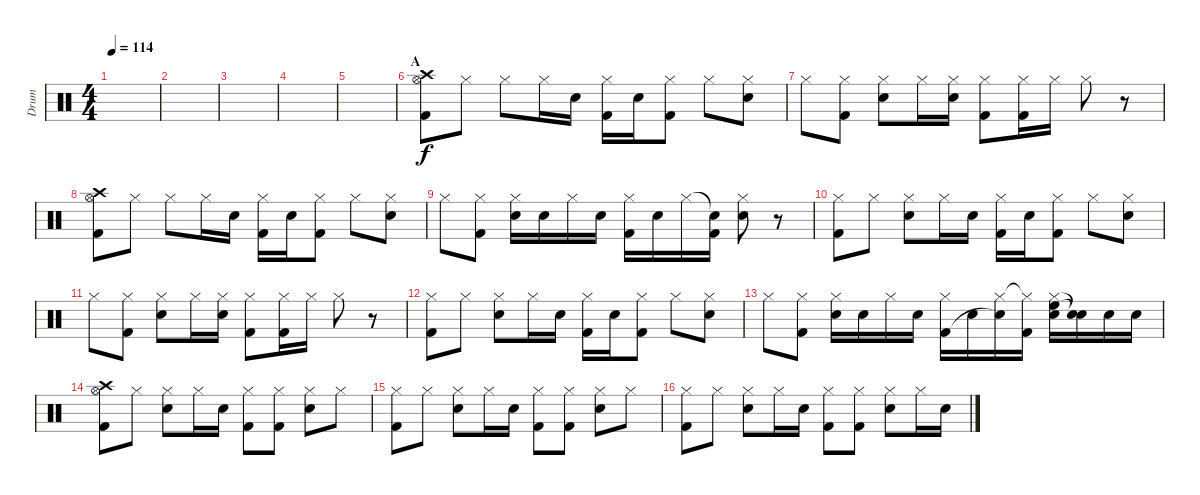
\track ("Drum" "Drum") {instrument percussion}
\staff {score}
\articulation defaults
\ts (4 4)
\tempo 114
\clef neutral
\ks c
|
|
|
|
|
\section ("" "A")
("Crash high (hit)" "Hi-Hat (open)" "Kick (hit) 2").8 "Hi-Hat (closed)".8 "Hi-Hat (closed)".8 "Hi-Hat (closed)".16 "Snare (hit) 2".16 ("Hi-Hat (closed)" "Kick (hit) 2").16 "Snare (hit) 2".16 ("Hi-Hat (closed)" "Kick (hit) 2").8 "Hi-Hat (closed)".8 ("Hi-Hat (closed)" "Snare (hit) 2").8 |
"Hi-Hat (closed)".8 ("Hi-Hat (closed)" "Kick (hit) 2").8 ("Hi-Hat (closed)" "Snare (hit) 2").8 "Hi-Hat (closed)".16 ("Hi-Hat (closed)" "Snare (hit) 2").16 ("Hi-Hat (closed)" "Kick (hit) 2").8 ("Hi-Hat (closed)" "Kick (hit) 2").16 "Hi-Hat (closed)".16 "Hi-Hat (closed)".8 r.8 |
("Crash high (hit)" "Hi-Hat (open)" "Kick (hit) 2").8 "Hi-Hat (closed)".8 "Hi-Hat (closed)".8 "Hi-Hat (closed)".16 "Snare (hit) 2".16 ("Hi-Hat (closed)" "Kick (hit) 2").16 "Snare (hit) 2".16 ("Hi-Hat (closed)" "Kick (hit) 2").8 "Hi-Hat (closed)".8 ("Hi-Hat (closed)" "Snare (hit) 2").8 |
"Hi-Hat (closed)".8 ("Hi-Hat (closed)" "Kick (hit) 2").8 ("Hi-Hat (closed)" "Snare (hit) 2").16 "Snare (hit) 2".16 "Hi-Hat (closed)".16 "Snare (hit) 2".16 ("Hi-Hat (closed)" "Kick (hit) 2").16 "Snare (hit) 2".16 "Hi-Hat (closed)".16 ("Snare (hit)"{t} "Kick (hit) 2").16 ("Hi-Hat (closed)" "Snare (hit) 2").8 r.8 |
("Hi-Hat (closed)" "Kick (hit) 2").8 "Hi-Hat (closed)".8 ("Hi-Hat (closed)" "Snare (hit) 2").8 "Hi-Hat (closed)".16 "Snare (hit) 2".16 ("Hi-Hat (closed)" "Kick (hit) 2").16 "Snare (hit) 2".16 ("Hi-Hat (closed)" "Kick (hit) 2").8 "Hi-Hat (closed)".8 ("Hi-Hat (closed)" "Snare (hit) 2").8 |
"Hi-Hat (closed)".8 ("Hi-Hat (closed)" "Kick (hit) 2").8 ("Hi-Hat (closed)" "Snare (hit) 2").8 "Hi-Hat (closed)".16 ("Hi-Hat (closed)" "Snare (hit) 2").16 ("Hi-Hat (closed)" "Kick (hit) 2").8 ("Hi-Hat (closed)" "Kick (hit) 2").16 "Hi-Hat (closed)".16 "Hi-Hat (closed)".8 r.8 |
("Hi-Hat (closed)" "Kick (hit) 2").8 "Hi-Hat (closed)".8 ("Hi-Hat (closed)" "Snare (hit) 2").8 "Hi-Hat (closed)".16 "Snare (hit) 2".16 ("Hi-Hat (closed)" "Kick (hit) 2").16 "Snare (hit) 2".16 ("Hi-Hat (closed)" "Kick (hit) 2").8 "Hi-Hat (closed)".8 ("Hi-Hat (closed)" "Snare (hit) 2").8 |
"Hi-Hat (closed)".8 ("Hi-Hat (closed)" "Kick (hit) 2").8 ("Hi-Hat (closed)" "Snare (hit) 2").16 "Snare (hit) 2".16 "Hi-Hat (closed)".16 "Snare (hit) 2".16 ("Hi-Hat (closed)" "Kick (hit) 2").16 "Snare (hit) 2".16 ("Hi-Hat (closed)" "Snare (hit)"{t}).16 ("Hi-Hat (closed)"{t} "Kick (hit) 2").16 ("High Floor Tom (hit)" "Hi-Hat (closed)" "Snare (hit) 2").16 ("Snare (hit)"{t} "Snare (hit) 2"{t}).16 "Snare (hit) 2".16 "Snare (hit) 2".16 |
("Crash high (hit)" "Hi-Hat (open)" "Kick (hit) 2").8 "Hi-Hat (closed)".8 ("Hi-Hat (closed)" "Snare (hit) 2").8 "Hi-Hat (closed)".16 "Snare (hit) 2".16 ("Hi-Hat (closed)" "Kick (hit) 2").8 ("Hi-Hat (closed)" "Kick (hit) 2").8 ("Hi-Hat (closed)" "Snare (hit) 2").8 "Hi-Hat (closed)".8 |
("Hi-Hat (closed)" "Kick (hit) 2").8 "Hi-Hat (closed)".8 ("Hi-Hat (closed)" "Snare (hit) 2").8 "Hi-Hat (closed)".16 "Snare (hit) 2".16 ("Hi-Hat (closed)" "Kick (hit) 2").8 ("Hi-Hat (closed)" "Kick (hit) 2").8 ("Hi-Hat (closed)" "Snare (hit) 2").8 "Hi-Hat (closed)".8 |
("Hi-Hat (closed)" "Kick (hit) 2").8 "Hi-Hat (closed)".8 ("Hi-Hat (closed)" "Snare (hit) 2").8 "Hi-Hat (closed)".16 "Snare (hit) 2".16 ("Hi-Hat (closed)" "Kick (hit) 2").8 ("Hi-Hat (closed)" "Kick (hit) 2").8 ("Hi-Hat (closed)" "Snare (hit) 2").8 "Hi-Hat (closed)".16 "Snare (hit) 2".16
